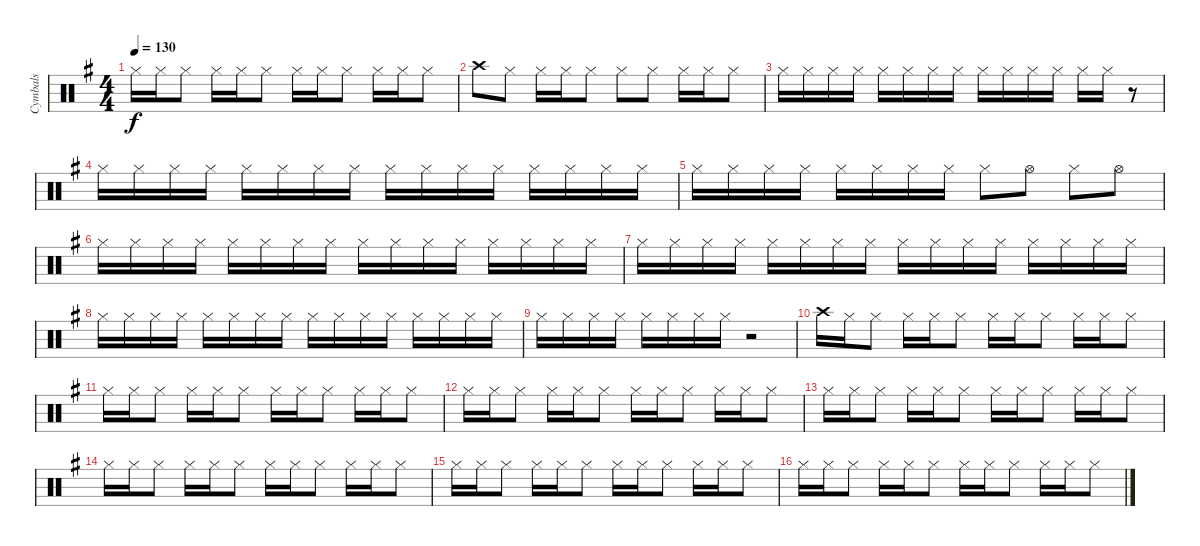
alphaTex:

\track ("Cymbals" "Cymbals") {instrument percussion}
\staff {score}
\articulation defaults
\ts (4 4)
\tempo 130
\clef neutral
\ks g "Hi-Hat (closed)".16{dy f} "Hi-Hat (closed)".16 "Hi-Hat (closed)".8 "Hi-Hat (closed)".16 "Hi-Hat (closed)".16 "Hi-Hat (closed)".8 "Hi-Hat (closed)".16 "Hi-Hat (closed)".16 "Hi-Hat (closed)".8 "Hi-Hat (closed)".16 "Hi-Hat (closed)".16 "Hi-Hat (closed)".8
|
"Crash high (hit)".8 "Hi-Hat (closed)".8 "Hi-Hat (closed)".16 "Hi-Hat (closed)".16 "Hi-Hat (closed)".8 "Hi-Hat (closed)".8 "Hi-Hat (closed)".8 "Hi-Hat (closed)".16 "Hi-Hat (closed)".16 "Hi-Hat (closed)".8 |
"Hi-Hat (closed)".16 "Hi-Hat (closed)".16 "Hi-Hat (closed)".16 "Hi-Hat (closed)".16 "Hi-Hat (closed)".16 "Hi-Hat (closed)".16 "Hi-Hat (closed)".16 "Hi-Hat (closed)".16 "Hi-Hat (closed)".16 "Hi-Hat (closed)".16 "Hi-Hat (closed)".16 "Hi-Hat (closed)".16 "Hi-Hat (closed)".16 "Hi-Hat (closed)".16 r.8 |
"Hi-Hat (closed)".16 "Hi-Hat (closed)".16 "Hi-Hat (closed)".16 "Hi-Hat (closed)".16 "Hi-Hat (closed)".16 "Hi-Hat (closed)".16 "Hi-Hat (closed)".16 "Hi-Hat (closed)".16 "Hi-Hat (closed)".16 "Hi-Hat (closed)".16 "Hi-Hat (closed)".16 "Hi-Hat (closed)".16 "Hi-Hat (closed)".16 "Hi-Hat (closed)".16 "Hi-Hat (closed)".16 "Hi-Hat (closed)".16 |
"Hi-Hat (closed)".16 "Hi-Hat (closed)".16 "Hi-Hat (closed)".16 "Hi-Hat (closed)".16 "Hi-Hat (closed)".16 "Hi-Hat (closed)".16 "Hi-Hat (closed)".16 "Hi-Hat (closed)".16 "Hi-Hat (closed)".8 "Hi-Hat (open)".8 "Hi-Hat (closed)".8 "Hi-Hat (open)".8 |
"Hi-Hat (closed)".16 "Hi-Hat (closed)".16 "Hi-Hat (closed)".16 "Hi-Hat (closed)".16 "Hi-Hat (closed)".16 "Hi-Hat (closed)".16 "Hi-Hat (closed)".16 "Hi-Hat (closed)".16 "Hi-Hat (closed)".16 "Hi-Hat (closed)".16 "Hi-Hat (closed)".16 "Hi-Hat (closed)".16 "Hi-Hat (closed)".16 "Hi-Hat (closed)".16 "Hi-Hat (closed)".16 "Hi-Hat (closed)".16 |
"Hi-Hat (closed)".16 "Hi-Hat (closed)".16 "Hi-Hat (closed)".16 "Hi-Hat (closed)".16 "Hi-Hat (closed)".16 "Hi-Hat (closed)".16 "Hi-Hat (closed)".16 "Hi-Hat (closed)".16 "Hi-Hat (closed)".16 "Hi-Hat (closed)".16 "Hi-Hat (closed)".16 "Hi-Hat (closed)".16 "Hi-Hat (closed)".16 "Hi-Hat (closed)".16 "Hi-Hat (closed)".16 "Hi-Hat (closed)".16 |
"Hi-Hat (closed)".16 "Hi-Hat (closed)".16 "Hi-Hat (closed)".16 "Hi-Hat (closed)".16 "Hi-Hat (closed)".16 "Hi-Hat (closed)".16 "Hi-Hat (closed)".16 "Hi-Hat (closed)".16 "Hi-Hat (closed)".16 "Hi-Hat (closed)".16 "Hi-Hat (closed)".16 "Hi-Hat (closed)".16 "Hi-Hat (closed)".16 "Hi-Hat (closed)".16 "Hi-Hat (closed)".16 "Hi-Hat (closed)".16 |
"Hi-Hat (closed)".16 "Hi-Hat (closed)".16 "Hi-Hat (closed)".16 "Hi-Hat (closed)".16 "Hi-Hat (closed)".16 "Hi-Hat (closed)".16 "Hi-Hat (closed)".16 "Hi-Hat (closed)".16 r.2 |
"Crash high (hit)".16 "Hi-Hat (closed)".16 "Hi-Hat (closed)".8 "Hi-Hat (closed)".16 "Hi-Hat (closed)".16 "Hi-Hat (closed)".8 "Hi-Hat (closed)".16 "Hi-Hat (closed)".16 "Hi-Hat (closed)".8 "Hi-Hat (closed)".16 "Hi-Hat (closed)".16 "Hi-Hat (closed)".8 |
"Hi-Hat (closed)".16 "Hi-Hat (closed)".16 "Hi-Hat (closed)".8 "Hi-Hat (closed)".16 "Hi-Hat (closed)".16 "Hi-Hat (closed)".8 "Hi-Hat (closed)".16 "Hi-Hat (closed)".16 "Hi-Hat (closed)".8 "Hi-Hat (closed)".16 "Hi-Hat (closed)".16 "Hi-Hat (closed)".8 |
"Hi-Hat (closed)".16 "Hi-Hat (closed)".16 "Hi-Hat (closed)".8 "Hi-Hat (closed)".16 "Hi-Hat (closed)".16 "Hi-Hat (closed)".8 "Hi-Hat (closed)".16 "Hi-Hat (closed)".16 "Hi-Hat (closed)".8 "Hi-Hat (closed)".16 "Hi-Hat (closed)".16 "Hi-Hat (closed)".8 |
"Hi-Hat (closed)".16 "Hi-Hat (closed)".16 "Hi-Hat (closed)".8 "Hi-Hat (closed)".16 "Hi-Hat (closed)".16 "Hi-Hat (closed)".8 "Hi-Hat (closed)".16 "Hi-Hat (closed)".16 "Hi-Hat (closed)".8 "Hi-Hat (closed)".16 "Hi-Hat (closed)".16 "Hi-Hat (closed)".8 |
"Hi-Hat (closed)".16 "Hi-Hat (closed)".16 "Hi-Hat (closed)".8 "Hi-Hat (closed)".16 "Hi-Hat (closed)".16 "Hi-Hat (closed)".8 "Hi-Hat (closed)".16 "Hi-Hat (closed)".16 "Hi-Hat (closed)".8 "Hi-Hat (closed)".16 "Hi-Hat (closed)".16 "Hi-Hat (closed)".8 |
"Hi-Hat (closed)".16 "Hi-Hat (closed)".16 "Hi-Hat (closed)".8 "Hi-Hat (closed)".16 "Hi-Hat (closed)".16 "Hi-Hat (closed)".8 "Hi-Hat (closed)".16 "Hi-Hat (closed)".16 "Hi-Hat (closed)".8 "Hi-Hat (closed)".16 "Hi-Hat (closed)".16 "Hi-Hat (closed)".8 |
"Hi-Hat (closed)".16 "Hi-Hat (closed)".16 "Hi-Hat (closed)".8 "Hi-Hat (closed)".16 "Hi-Hat (closed)".16 "Hi-Hat (closed)".8 "Hi-Hat (closed)".16 "Hi-Hat (closed)".16 "Hi-Hat (closed)".8 "Hi-Hat (closed)".16 "Hi-Hat (closed)".16 "Hi-Hat (closed)".8
